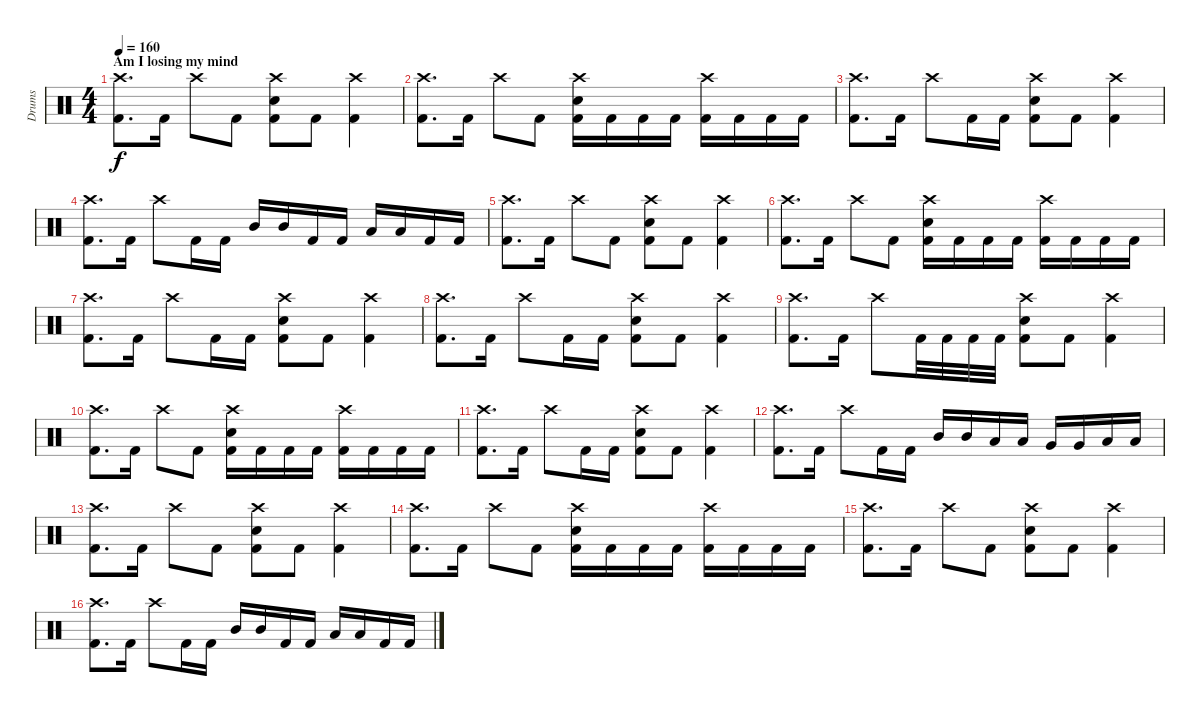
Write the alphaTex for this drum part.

\track ("Drums" "Drums") {instrument percussion}
\staff {score}
\articulation defaults
\ts (4 4)
\section ("" "Am I losing my mind")
\tempo 160
\clef neutral
\ks c
("Crash high (hit)" "Kick (hit) 2").8{d dy f} "Kick (hit) 2".16 "Crash high (hit)".8 "Kick (hit) 2".8 ("Crash high (hit)" "Electric Snare (hit)" "Kick (hit) 2").8 "Kick (hit) 2".8 ("Crash high (hit)" "Kick (hit) 2").4 |
("Crash high (hit)" "Kick (hit) 2").8{d} "Kick (hit) 2".16 "Crash high (hit)".8 "Kick (hit) 2".8 ("Crash high (hit)" "Electric Snare (hit)" "Kick (hit) 2").16 "Kick (hit) 2".16 "Kick (hit) 2".16 "Kick (hit) 2".16 ("Crash high (hit)" "Kick (hit) 2").16 "Kick (hit) 2".16 "Kick (hit) 2".16 "Kick (hit) 2".16 |
("Crash high (hit)" "Kick (hit) 2").8{d} "Kick (hit) 2".16 "Crash high (hit)".8 "Kick (hit) 2".16 "Kick (hit) 2".16 ("Crash high (hit)" "Electric Snare (hit)" "Kick (hit) 2").8 "Kick (hit) 2".8 ("Crash high (hit)" "Kick (hit) 2").4 |
("Crash high (hit)" "Kick (hit) 2").8{d} "Kick (hit) 2".16 "Crash high (hit)".8 "Kick (hit) 2".16 "Kick (hit) 2".16 "Mid Tom (hit)".16 "Mid Tom (hit)".16 "Kick (hit) 2".16 "Kick (hit) 2".16 "Low Tom (hit)".16 "Low Tom (hit)".16 "Kick (hit) 2".16 "Kick (hit) 2".16 |
("Crash high (hit)" "Kick (hit) 2").8{d} "Kick (hit) 2".16 "Crash high (hit)".8 "Kick (hit) 2".8 ("Crash high (hit)" "Electric Snare (hit)" "Kick (hit) 2").8 "Kick (hit) 2".8 ("Crash high (hit)" "Kick (hit) 2").4 |
("Crash high (hit)" "Kick (hit) 2").8{d} "Kick (hit) 2".16 "Crash high (hit)".8 "Kick (hit) 2".8 ("Crash high (hit)" "Electric Snare (hit)" "Kick (hit) 2").16 "Kick (hit) 2".16 "Kick (hit) 2".16 "Kick (hit) 2".16 ("Crash high (hit)" "Kick (hit) 2").16 "Kick (hit) 2".16 "Kick (hit) 2".16 "Kick (hit) 2".16 |
("Crash high (hit)" "Kick (hit) 2").8{d} "Kick (hit) 2".16 "Crash high (hit)".8 "Kick (hit) 2".16 "Kick (hit) 2".16 ("Crash high (hit)" "Electric Snare (hit)" "Kick (hit) 2").8 "Kick (hit) 2".8 ("Crash high (hit)" "Kick (hit) 2").4 |
("Crash high (hit)" "Kick (hit) 2").8{d} "Kick (hit) 2".16 "Crash high (hit)".8 "Kick (hit) 2".16 "Kick (hit) 2".16 ("Crash high (hit)" "Electric Snare (hit)" "Kick (hit) 2").8 "Kick (hit) 2".8 ("Crash high (hit)" "Kick (hit) 2").4 |
("Crash high (hit)" "Kick (hit) 2").8{d} "Kick (hit) 2".16 "Crash high (hit)".8 "Kick (hit) 2".32 "Kick (hit) 2".32 "Kick (hit) 2".32 "Kick (hit) 2".32 ("Crash high (hit)" "Electric Snare (hit)" "Kick (hit) 2").8 "Kick (hit) 2".8 ("Crash high (hit)" "Kick (hit) 2").4 |
("Crash high (hit)" "Kick (hit) 2").8{d} "Kick (hit) 2".16 "Crash high (hit)".8 "Kick (hit) 2".8 ("Crash high (hit)" "Electric Snare (hit)" "Kick (hit) 2").16 "Kick (hit) 2".16 "Kick (hit) 2".16 "Kick (hit) 2".16 ("Crash high (hit)" "Kick (hit) 2").16 "Kick (hit) 2".16 "Kick (hit) 2".16 "Kick (hit) 2".16 |
("Crash high (hit)" "Kick (hit) 2").8{d} "Kick (hit) 2".16 "Crash high (hit)".8 "Kick (hit) 2".16 "Kick (hit) 2".16 ("Crash high (hit)" "Electric Snare (hit)" "Kick (hit) 2").8 "Kick (hit) 2".8 ("Crash high (hit)" "Kick (hit) 2").4 |
("Crash high (hit)" "Kick (hit) 2").8{d} "Kick (hit) 2".16 "Crash high (hit)".8 "Kick (hit) 2".16 "Kick (hit) 2".16 "Mid Tom (hit)".16 "Mid Tom (hit)".16 "Low Tom (hit)".16 "Low Tom (hit)".16 "Very Low Tom (hit)".16 "Very Low Tom (hit)".16 "Low Floor Tom (hit)".16 "Low Floor Tom (hit)".16 |
("Crash high (hit)" "Kick (hit) 2").8{d} "Kick (hit) 2".16 "Crash high (hit)".8 "Kick (hit) 2".8 ("Crash high (hit)" "Electric Snare (hit)" "Kick (hit) 2").8 "Kick (hit) 2".8 ("Crash high (hit)" "Kick (hit) 2").4 |
("Crash high (hit)" "Kick (hit) 2").8{d} "Kick (hit) 2".16 "Crash high (hit)".8 "Kick (hit) 2".8 ("Crash high (hit)" "Electric Snare (hit)" "Kick (hit) 2").16 "Kick (hit) 2".16 "Kick (hit) 2".16 "Kick (hit) 2".16 ("Crash high (hit)" "Kick (hit) 2").16 "Kick (hit) 2".16 "Kick (hit) 2".16 "Kick (hit) 2".16 |
("Crash high (hit)" "Kick (hit) 2").8{d} "Kick (hit) 2".16 "Crash high (hit)".8 "Kick (hit) 2".8 ("Crash high (hit)" "Electric Snare (hit)" "Kick (hit) 2").8 "Kick (hit) 2".8 ("Crash high (hit)" "Kick (hit) 2").4 |
("Crash high (hit)" "Kick (hit) 2").8{d} "Kick (hit) 2".16 "Crash high (hit)".8 "Kick (hit) 2".16 "Kick (hit) 2".16 "Mid Tom (hit)".16 "Mid Tom (hit)".16 "Kick (hit) 2".16 "Kick (hit) 2".16 "Low Tom (hit)".16 "Low Tom (hit)".16 "Kick (hit) 2".16 "Kick (hit) 2".16
